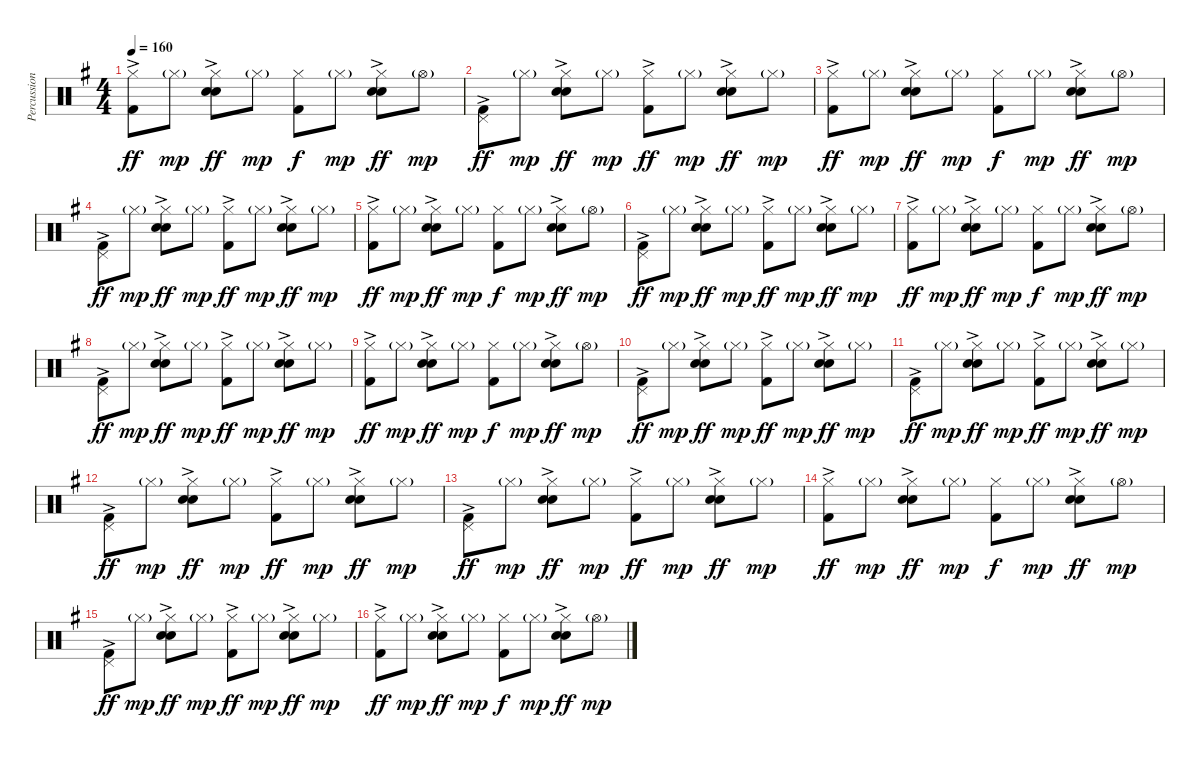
\track ("Percussion" "Percussion") {instrument percussion}
\staff {score}
\articulation defaults
\ts (4 4)
\tempo 160
\clef neutral
\ks g
("Hi-Hat (closed)" "Kick (hit) 2"{ac}).8{dy ff} "Hi-Hat (closed)"{g}.8{dy mp} ("Hi-Hat (closed)" "Electric Snare (hit)"{ac} "Snare (hit) 2").8{dy ff} "Hi-Hat (closed)"{g}.8{dy mp} ("Hi-Hat (closed)" "Kick (hit) 2").8{dy f} "Hi-Hat (closed)"{g}.8{dy mp} ("Hi-Hat (closed)" "Electric Snare (hit)"{ac} "Snare (hit) 2").8{dy ff} "Hi-Hat (open)"{g}.8{dy mp} |
("Pedal Hi-Hat (hit)" "Kick (hit) 2"{ac}).8{dy ff} "Hi-Hat (closed)"{g}.8{dy mp} ("Hi-Hat (closed)" "Electric Snare (hit)"{ac} "Snare (hit) 2").8{dy ff} "Hi-Hat (closed)"{g}.8{dy mp} ("Hi-Hat (closed)" "Kick (hit) 2"{ac}).8{dy ff} "Hi-Hat (closed)"{g}.8{dy mp} ("Hi-Hat (closed)" "Electric Snare (hit)"{ac} "Snare (hit) 2").8{dy ff} "Hi-Hat (closed)"{g}.8{dy mp} |
("Hi-Hat (closed)" "Kick (hit) 2"{ac}).8{dy ff} "Hi-Hat (closed)"{g}.8{dy mp} ("Hi-Hat (closed)" "Electric Snare (hit)"{ac} "Snare (hit) 2").8{dy ff} "Hi-Hat (closed)"{g}.8{dy mp} ("Hi-Hat (closed)" "Kick (hit) 2").8{dy f} "Hi-Hat (closed)"{g}.8{dy mp} ("Hi-Hat (closed)" "Electric Snare (hit)"{ac} "Snare (hit) 2").8{dy ff} "Hi-Hat (open)"{g}.8{dy mp} |
("Pedal Hi-Hat (hit)" "Kick (hit) 2"{ac}).8{dy ff} "Hi-Hat (closed)"{g}.8{dy mp} ("Hi-Hat (closed)" "Electric Snare (hit)"{ac} "Snare (hit) 2").8{dy ff} "Hi-Hat (closed)"{g}.8{dy mp} ("Hi-Hat (closed)" "Kick (hit) 2"{ac}).8{dy ff} "Hi-Hat (closed)"{g}.8{dy mp} ("Hi-Hat (closed)" "Electric Snare (hit)"{ac} "Snare (hit) 2").8{dy ff} "Hi-Hat (closed)"{g}.8{dy mp} |
("Hi-Hat (closed)" "Kick (hit) 2"{ac}).8{dy ff} "Hi-Hat (closed)"{g}.8{dy mp} ("Hi-Hat (closed)" "Electric Snare (hit)"{ac} "Snare (hit) 2").8{dy ff} "Hi-Hat (closed)"{g}.8{dy mp} ("Hi-Hat (closed)" "Kick (hit) 2").8{dy f} "Hi-Hat (closed)"{g}.8{dy mp} ("Hi-Hat (closed)" "Electric Snare (hit)"{ac} "Snare (hit) 2").8{dy ff} "Hi-Hat (open)"{g}.8{dy mp} |
("Pedal Hi-Hat (hit)" "Kick (hit) 2"{ac}).8{dy ff} "Hi-Hat (closed)"{g}.8{dy mp} ("Hi-Hat (closed)" "Electric Snare (hit)"{ac} "Snare (hit) 2").8{dy ff} "Hi-Hat (closed)"{g}.8{dy mp} ("Hi-Hat (closed)" "Kick (hit) 2"{ac}).8{dy ff} "Hi-Hat (closed)"{g}.8{dy mp} ("Hi-Hat (closed)" "Electric Snare (hit)"{ac} "Snare (hit) 2").8{dy ff} "Hi-Hat (closed)"{g}.8{dy mp} |
("Hi-Hat (closed)" "Kick (hit) 2"{ac}).8{dy ff} "Hi-Hat (closed)"{g}.8{dy mp} ("Hi-Hat (closed)" "Electric Snare (hit)"{ac} "Snare (hit) 2").8{dy ff} "Hi-Hat (closed)"{g}.8{dy mp} ("Hi-Hat (closed)" "Kick (hit) 2").8{dy f} "Hi-Hat (closed)"{g}.8{dy mp} ("Hi-Hat (closed)" "Electric Snare (hit)"{ac} "Snare (hit) 2").8{dy ff} "Hi-Hat (open)"{g}.8{dy mp} |
("Pedal Hi-Hat (hit)" "Kick (hit) 2"{ac}).8{dy ff} "Hi-Hat (closed)"{g}.8{dy mp} ("Hi-Hat (closed)" "Electric Snare (hit)"{ac} "Snare (hit) 2").8{dy ff} "Hi-Hat (closed)"{g}.8{dy mp} ("Hi-Hat (closed)" "Kick (hit) 2"{ac}).8{dy ff} "Hi-Hat (closed)"{g}.8{dy mp} ("Hi-Hat (closed)" "Electric Snare (hit)"{ac} "Snare (hit) 2").8{dy ff} "Hi-Hat (closed)"{g}.8{dy mp} |
("Hi-Hat (closed)" "Kick (hit) 2"{ac}).8{dy ff} "Hi-Hat (closed)"{g}.8{dy mp} ("Hi-Hat (closed)" "Electric Snare (hit)"{ac} "Snare (hit) 2").8{dy ff} "Hi-Hat (closed)"{g}.8{dy mp} ("Hi-Hat (closed)" "Kick (hit) 2").8{dy f} "Hi-Hat (closed)"{g}.8{dy mp} ("Hi-Hat (closed)" "Electric Snare (hit)"{ac} "Snare (hit) 2").8{dy ff} "Hi-Hat (open)"{g}.8{dy mp} |
("Pedal Hi-Hat (hit)" "Kick (hit) 2"{ac}).8{dy ff} "Hi-Hat (closed)"{g}.8{dy mp} ("Hi-Hat (closed)" "Electric Snare (hit)"{ac} "Snare (hit) 2").8{dy ff} "Hi-Hat (closed)"{g}.8{dy mp} ("Hi-Hat (closed)" "Kick (hit) 2"{ac}).8{dy ff} "Hi-Hat (closed)"{g}.8{dy mp} ("Hi-Hat (closed)" "Electric Snare (hit)"{ac} "Snare (hit) 2").8{dy ff} "Hi-Hat (closed)"{g}.8{dy mp} |
("Pedal Hi-Hat (hit)" "Kick (hit) 2"{ac}).8{dy ff} "Hi-Hat (closed)"{g}.8{dy mp} ("Hi-Hat (closed)" "Electric Snare (hit)"{ac} "Snare (hit) 2").8{dy ff} "Hi-Hat (closed)"{g}.8{dy mp} ("Hi-Hat (closed)" "Kick (hit) 2"{ac}).8{dy ff} "Hi-Hat (closed)"{g}.8{dy mp} ("Hi-Hat (closed)" "Electric Snare (hit)"{ac} "Snare (hit) 2").8{dy ff} "Hi-Hat (closed)"{g}.8{dy mp} |
("Pedal Hi-Hat (hit)" "Kick (hit) 2"{ac}).8{dy ff} "Hi-Hat (closed)"{g}.8{dy mp} ("Hi-Hat (closed)" "Electric Snare (hit)"{ac} "Snare (hit) 2").8{dy ff} "Hi-Hat (closed)"{g}.8{dy mp} ("Hi-Hat (closed)" "Kick (hit) 2"{ac}).8{dy ff} "Hi-Hat (closed)"{g}.8{dy mp} ("Hi-Hat (closed)" "Electric Snare (hit)"{ac} "Snare (hit) 2").8{dy ff} "Hi-Hat (closed)"{g}.8{dy mp} |
("Pedal Hi-Hat (hit)" "Kick (hit) 2"{ac}).8{dy ff} "Hi-Hat (closed)"{g}.8{dy mp} ("Hi-Hat (closed)" "Electric Snare (hit)"{ac} "Snare (hit) 2").8{dy ff} "Hi-Hat (closed)"{g}.8{dy mp} ("Hi-Hat (closed)" "Kick (hit) 2"{ac}).8{dy ff} "Hi-Hat (closed)"{g}.8{dy mp} ("Hi-Hat (closed)" "Electric Snare (hit)"{ac} "Snare (hit) 2").8{dy ff} "Hi-Hat (closed)"{g}.8{dy mp} |
("Hi-Hat (closed)" "Kick (hit) 2"{ac}).8{dy ff} "Hi-Hat (closed)"{g}.8{dy mp} ("Hi-Hat (closed)" "Electric Snare (hit)"{ac} "Snare (hit) 2").8{dy ff} "Hi-Hat (closed)"{g}.8{dy mp} ("Hi-Hat (closed)" "Kick (hit) 2").8{dy f} "Hi-Hat (closed)"{g}.8{dy mp} ("Hi-Hat (closed)" "Electric Snare (hit)"{ac} "Snare (hit) 2").8{dy ff} "Hi-Hat (open)"{g}.8{dy mp} |
("Pedal Hi-Hat (hit)" "Kick (hit) 2"{ac}).8{dy ff} "Hi-Hat (closed)"{g}.8{dy mp} ("Hi-Hat (closed)" "Electric Snare (hit)"{ac} "Snare (hit) 2").8{dy ff} "Hi-Hat (closed)"{g}.8{dy mp} ("Hi-Hat (closed)" "Kick (hit) 2"{ac}).8{dy ff} "Hi-Hat (closed)"{g}.8{dy mp} ("Hi-Hat (closed)" "Electric Snare (hit)"{ac} "Snare (hit) 2").8{dy ff} "Hi-Hat (closed)"{g}.8{dy mp} |
("Hi-Hat (closed)" "Kick (hit) 2"{ac}).8{dy ff} "Hi-Hat (closed)"{g}.8{dy mp} ("Hi-Hat (closed)" "Electric Snare (hit)"{ac} "Snare (hit) 2").8{dy ff} "Hi-Hat (closed)"{g}.8{dy mp} ("Hi-Hat (closed)" "Kick (hit) 2").8{dy f} "Hi-Hat (closed)"{g}.8{dy mp} ("Hi-Hat (closed)" "Electric Snare (hit)"{ac} "Snare (hit) 2").8{dy ff} "Hi-Hat (open)"{g}.8{dy mp}
